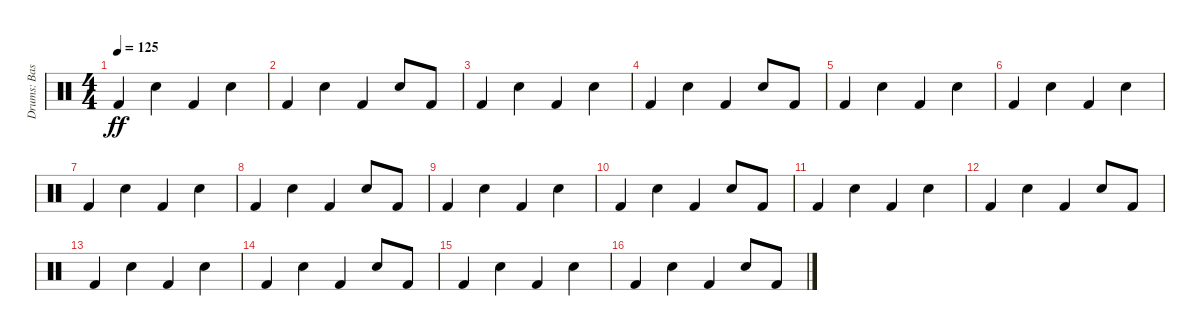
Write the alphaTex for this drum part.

\track ("Drums: Bass, Snare" "Drums: Bas") {instrument percussion}
\staff {score}
\articulation defaults
\ts (4 4)
\tempo 125
\clef neutral
\ks c "Kick (hit) 2".4{dy ff} "Electric Snare (hit)".4 "Kick (hit) 2".4 "Electric Snare (hit)".4
|
"Kick (hit) 2".4 "Electric Snare (hit)".4 "Kick (hit) 2".4 "Electric Snare (hit)".8 "Kick (hit) 2".8 |
"Kick (hit) 2".4 "Electric Snare (hit)".4 "Kick (hit) 2".4 "Electric Snare (hit)".4 |
"Kick (hit) 2".4 "Electric Snare (hit)".4 "Kick (hit) 2".4 "Electric Snare (hit)".8 "Kick (hit) 2".8 |
"Kick (hit) 2".4 "Electric Snare (hit)".4 "Kick (hit) 2".4 "Electric Snare (hit)".4 |
"Kick (hit) 2".4 "Electric Snare (hit)".4 "Kick (hit) 2".4 "Electric Snare (hit)".4 |
"Kick (hit) 2".4 "Electric Snare (hit)".4 "Kick (hit) 2".4 "Electric Snare (hit)".4 |
"Kick (hit) 2".4 "Electric Snare (hit)".4 "Kick (hit) 2".4 "Electric Snare (hit)".8 "Kick (hit) 2".8 |
"Kick (hit) 2".4 "Electric Snare (hit)".4 "Kick (hit) 2".4 "Electric Snare (hit)".4 |
"Kick (hit) 2".4 "Electric Snare (hit)".4 "Kick (hit) 2".4 "Electric Snare (hit)".8 "Kick (hit) 2".8 |
"Kick (hit) 2".4 "Electric Snare (hit)".4 "Kick (hit) 2".4 "Electric Snare (hit)".4 |
"Kick (hit) 2".4 "Electric Snare (hit)".4 "Kick (hit) 2".4 "Electric Snare (hit)".8 "Kick (hit) 2".8 |
"Kick (hit) 2".4 "Electric Snare (hit)".4 "Kick (hit) 2".4 "Electric Snare (hit)".4 |
"Kick (hit) 2".4 "Electric Snare (hit)".4 "Kick (hit) 2".4 "Electric Snare (hit)".8 "Kick (hit) 2".8 |
"Kick (hit) 2".4 "Electric Snare (hit)".4 "Kick (hit) 2".4 "Electric Snare (hit)".4 |
"Kick (hit) 2".4 "Electric Snare (hit)".4 "Kick (hit) 2".4 "Electric Snare (hit)".8 "Kick (hit) 2".8
